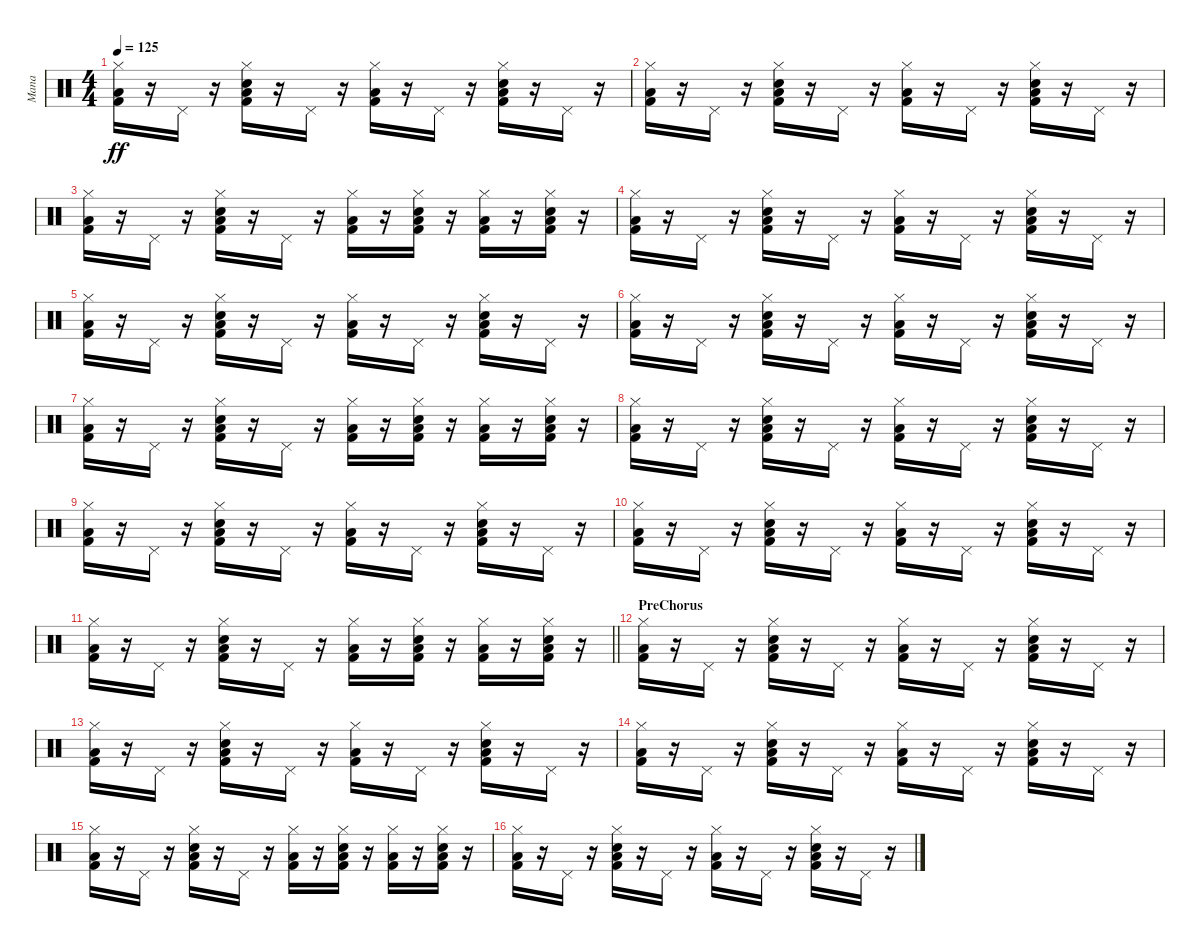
\track ("Mana" "Mana") {instrument percussion}
\staff {score}
\articulation defaults
\ts (4 4)
\tempo 125
\clef neutral
\ks c
("Hi-Hat (closed)" "Low Floor Tom (hit)" "Kick (hit) 2").16{dy ff} r.16 "Pedal Hi-Hat (hit)".16 r.16 ("Hi-Hat (closed)" "Snare (hit) 2" "Low Floor Tom (hit)" "Kick (hit) 2").16 r.16 "Pedal Hi-Hat (hit)".16 r.16 ("Hi-Hat (closed)" "Low Floor Tom (hit)" "Kick (hit) 2").16 r.16 "Pedal Hi-Hat (hit)".16 r.16 ("Hi-Hat (closed)" "Snare (hit) 2" "Low Floor Tom (hit)" "Kick (hit) 2").16 r.16 "Pedal Hi-Hat (hit)".16 r.16 |
("Hi-Hat (closed)" "Low Floor Tom (hit)" "Kick (hit) 2").16 r.16 "Pedal Hi-Hat (hit)".16 r.16 ("Hi-Hat (closed)" "Snare (hit) 2" "Low Floor Tom (hit)" "Kick (hit) 2").16 r.16 "Pedal Hi-Hat (hit)".16 r.16 ("Hi-Hat (closed)" "Low Floor Tom (hit)" "Kick (hit) 2").16 r.16 "Pedal Hi-Hat (hit)".16 r.16 ("Hi-Hat (closed)" "Snare (hit) 2" "Low Floor Tom (hit)" "Kick (hit) 2").16 r.16 "Pedal Hi-Hat (hit)".16 r.16 |
("Hi-Hat (closed)" "Low Floor Tom (hit)" "Kick (hit) 2").16 r.16 "Pedal Hi-Hat (hit)".16 r.16 ("Hi-Hat (closed)" "Snare (hit) 2" "Low Floor Tom (hit)" "Kick (hit) 2").16 r.16 "Pedal Hi-Hat (hit)".16 r.16 ("Hi-Hat (closed)" "Low Floor Tom (hit)" "Kick (hit) 2").16 r.16 ("Hi-Hat (closed)" "Snare (hit) 2" "Low Floor Tom (hit)" "Kick (hit) 2").16 r.16 ("Hi-Hat (closed)" "Low Floor Tom (hit)" "Kick (hit) 2").16 r.16 ("Hi-Hat (closed)" "Snare (hit) 2" "Low Floor Tom (hit)" "Kick (hit) 2").16 r.16 |
("Hi-Hat (closed)" "Low Floor Tom (hit)" "Kick (hit) 2").16 r.16 "Pedal Hi-Hat (hit)".16 r.16 ("Hi-Hat (closed)" "Snare (hit) 2" "Low Floor Tom (hit)" "Kick (hit) 2").16 r.16 "Pedal Hi-Hat (hit)".16 r.16 ("Hi-Hat (closed)" "Low Floor Tom (hit)" "Kick (hit) 2").16 r.16 "Pedal Hi-Hat (hit)".16 r.16 ("Hi-Hat (closed)" "Snare (hit) 2" "Low Floor Tom (hit)" "Kick (hit) 2").16 r.16 "Pedal Hi-Hat (hit)".16 r.16 |
("Hi-Hat (closed)" "Low Floor Tom (hit)" "Kick (hit) 2").16 r.16 "Pedal Hi-Hat (hit)".16 r.16 ("Hi-Hat (closed)" "Snare (hit) 2" "Low Floor Tom (hit)" "Kick (hit) 2").16 r.16 "Pedal Hi-Hat (hit)".16 r.16 ("Hi-Hat (closed)" "Low Floor Tom (hit)" "Kick (hit) 2").16 r.16 "Pedal Hi-Hat (hit)".16 r.16 ("Hi-Hat (closed)" "Snare (hit) 2" "Low Floor Tom (hit)" "Kick (hit) 2").16 r.16 "Pedal Hi-Hat (hit)".16 r.16 |
("Hi-Hat (closed)" "Low Floor Tom (hit)" "Kick (hit) 2").16 r.16 "Pedal Hi-Hat (hit)".16 r.16 ("Hi-Hat (closed)" "Snare (hit) 2" "Low Floor Tom (hit)" "Kick (hit) 2").16 r.16 "Pedal Hi-Hat (hit)".16 r.16 ("Hi-Hat (closed)" "Low Floor Tom (hit)" "Kick (hit) 2").16 r.16 "Pedal Hi-Hat (hit)".16 r.16 ("Hi-Hat (closed)" "Snare (hit) 2" "Low Floor Tom (hit)" "Kick (hit) 2").16 r.16 "Pedal Hi-Hat (hit)".16 r.16 |
("Hi-Hat (closed)" "Low Floor Tom (hit)" "Kick (hit) 2").16 r.16 "Pedal Hi-Hat (hit)".16 r.16 ("Hi-Hat (closed)" "Snare (hit) 2" "Low Floor Tom (hit)" "Kick (hit) 2").16 r.16 "Pedal Hi-Hat (hit)".16 r.16 ("Hi-Hat (closed)" "Low Floor Tom (hit)" "Kick (hit) 2").16 r.16 ("Hi-Hat (closed)" "Snare (hit) 2" "Low Floor Tom (hit)" "Kick (hit) 2").16 r.16 ("Hi-Hat (closed)" "Low Floor Tom (hit)" "Kick (hit) 2").16 r.16 ("Hi-Hat (closed)" "Snare (hit) 2" "Low Floor Tom (hit)" "Kick (hit) 2").16 r.16 |
("Hi-Hat (closed)" "Low Floor Tom (hit)" "Kick (hit) 2").16 r.16 "Pedal Hi-Hat (hit)".16 r.16 ("Hi-Hat (closed)" "Snare (hit) 2" "Low Floor Tom (hit)" "Kick (hit) 2").16 r.16 "Pedal Hi-Hat (hit)".16 r.16 ("Hi-Hat (closed)" "Low Floor Tom (hit)" "Kick (hit) 2").16 r.16 "Pedal Hi-Hat (hit)".16 r.16 ("Hi-Hat (closed)" "Snare (hit) 2" "Low Floor Tom (hit)" "Kick (hit) 2").16 r.16 "Pedal Hi-Hat (hit)".16 r.16 |
("Hi-Hat (closed)" "Low Floor Tom (hit)" "Kick (hit) 2").16 r.16 "Pedal Hi-Hat (hit)".16 r.16 ("Hi-Hat (closed)" "Snare (hit) 2" "Low Floor Tom (hit)" "Kick (hit) 2").16 r.16 "Pedal Hi-Hat (hit)".16 r.16 ("Hi-Hat (closed)" "Low Floor Tom (hit)" "Kick (hit) 2").16 r.16 "Pedal Hi-Hat (hit)".16 r.16 ("Hi-Hat (closed)" "Snare (hit) 2" "Low Floor Tom (hit)" "Kick (hit) 2").16 r.16 "Pedal Hi-Hat (hit)".16 r.16 |
("Hi-Hat (closed)" "Low Floor Tom (hit)" "Kick (hit) 2").16 r.16 "Pedal Hi-Hat (hit)".16 r.16 ("Hi-Hat (closed)" "Snare (hit) 2" "Low Floor Tom (hit)" "Kick (hit) 2").16 r.16 "Pedal Hi-Hat (hit)".16 r.16 ("Hi-Hat (closed)" "Low Floor Tom (hit)" "Kick (hit) 2").16 r.16 "Pedal Hi-Hat (hit)".16 r.16 ("Hi-Hat (closed)" "Snare (hit) 2" "Low Floor Tom (hit)" "Kick (hit) 2").16 r.16 "Pedal Hi-Hat (hit)".16 r.16 |
\barLineRight lightlight
("Hi-Hat (closed)" "Low Floor Tom (hit)" "Kick (hit) 2").16 r.16 "Pedal Hi-Hat (hit)".16 r.16 ("Hi-Hat (closed)" "Snare (hit) 2" "Low Floor Tom (hit)" "Kick (hit) 2").16 r.16 "Pedal Hi-Hat (hit)".16 r.16 ("Hi-Hat (closed)" "Low Floor Tom (hit)" "Kick (hit) 2").16 r.16 ("Hi-Hat (closed)" "Snare (hit) 2" "Low Floor Tom (hit)" "Kick (hit) 2").16 r.16 ("Hi-Hat (closed)" "Low Floor Tom (hit)" "Kick (hit) 2").16 r.16 ("Hi-Hat (closed)" "Snare (hit) 2" "Low Floor Tom (hit)" "Kick (hit) 2").16 r.16 |
\section ("" "PreChorus")
("Hi-Hat (closed)" "Low Floor Tom (hit)" "Kick (hit) 2").16 r.16 "Pedal Hi-Hat (hit)".16 r.16 ("Hi-Hat (closed)" "Snare (hit) 2" "Low Floor Tom (hit)" "Kick (hit) 2").16 r.16 "Pedal Hi-Hat (hit)".16 r.16 ("Hi-Hat (closed)" "Low Floor Tom (hit)" "Kick (hit) 2").16 r.16 "Pedal Hi-Hat (hit)".16 r.16 ("Hi-Hat (closed)" "Snare (hit) 2" "Low Floor Tom (hit)" "Kick (hit) 2").16 r.16 "Pedal Hi-Hat (hit)".16 r.16 |
("Hi-Hat (closed)" "Low Floor Tom (hit)" "Kick (hit) 2").16 r.16 "Pedal Hi-Hat (hit)".16 r.16 ("Hi-Hat (closed)" "Snare (hit) 2" "Low Floor Tom (hit)" "Kick (hit) 2").16 r.16 "Pedal Hi-Hat (hit)".16 r.16 ("Hi-Hat (closed)" "Low Floor Tom (hit)" "Kick (hit) 2").16 r.16 "Pedal Hi-Hat (hit)".16 r.16 ("Hi-Hat (closed)" "Snare (hit) 2" "Low Floor Tom (hit)" "Kick (hit) 2").16 r.16 "Pedal Hi-Hat (hit)".16 r.16 |
("Hi-Hat (closed)" "Low Floor Tom (hit)" "Kick (hit) 2").16 r.16 "Pedal Hi-Hat (hit)".16 r.16 ("Hi-Hat (closed)" "Snare (hit) 2" "Low Floor Tom (hit)" "Kick (hit) 2").16 r.16 "Pedal Hi-Hat (hit)".16 r.16 ("Hi-Hat (closed)" "Low Floor Tom (hit)" "Kick (hit) 2").16 r.16 "Pedal Hi-Hat (hit)".16 r.16 ("Hi-Hat (closed)" "Snare (hit) 2" "Low Floor Tom (hit)" "Kick (hit) 2").16 r.16 "Pedal Hi-Hat (hit)".16 r.16 |
("Hi-Hat (closed)" "Low Floor Tom (hit)" "Kick (hit) 2").16 r.16 "Pedal Hi-Hat (hit)".16 r.16 ("Hi-Hat (closed)" "Snare (hit) 2" "Low Floor Tom (hit)" "Kick (hit) 2").16 r.16 "Pedal Hi-Hat (hit)".16 r.16 ("Hi-Hat (closed)" "Low Floor Tom (hit)" "Kick (hit) 2").16 r.16 ("Hi-Hat (closed)" "Snare (hit) 2" "Low Floor Tom (hit)" "Kick (hit) 2").16 r.16 ("Hi-Hat (closed)" "Low Floor Tom (hit)" "Kick (hit) 2").16 r.16 ("Hi-Hat (closed)" "Snare (hit) 2" "Low Floor Tom (hit)" "Kick (hit) 2").16 r.16 |
("Hi-Hat (closed)" "Low Floor Tom (hit)" "Kick (hit) 2").16 r.16 "Pedal Hi-Hat (hit)".16 r.16 ("Hi-Hat (closed)" "Snare (hit) 2" "Low Floor Tom (hit)" "Kick (hit) 2").16 r.16 "Pedal Hi-Hat (hit)".16 r.16 ("Hi-Hat (closed)" "Low Floor Tom (hit)" "Kick (hit) 2").16 r.16 "Pedal Hi-Hat (hit)".16 r.16 ("Hi-Hat (closed)" "Snare (hit) 2" "Low Floor Tom (hit)" "Kick (hit) 2").16 r.16 "Pedal Hi-Hat (hit)".16 r.16
